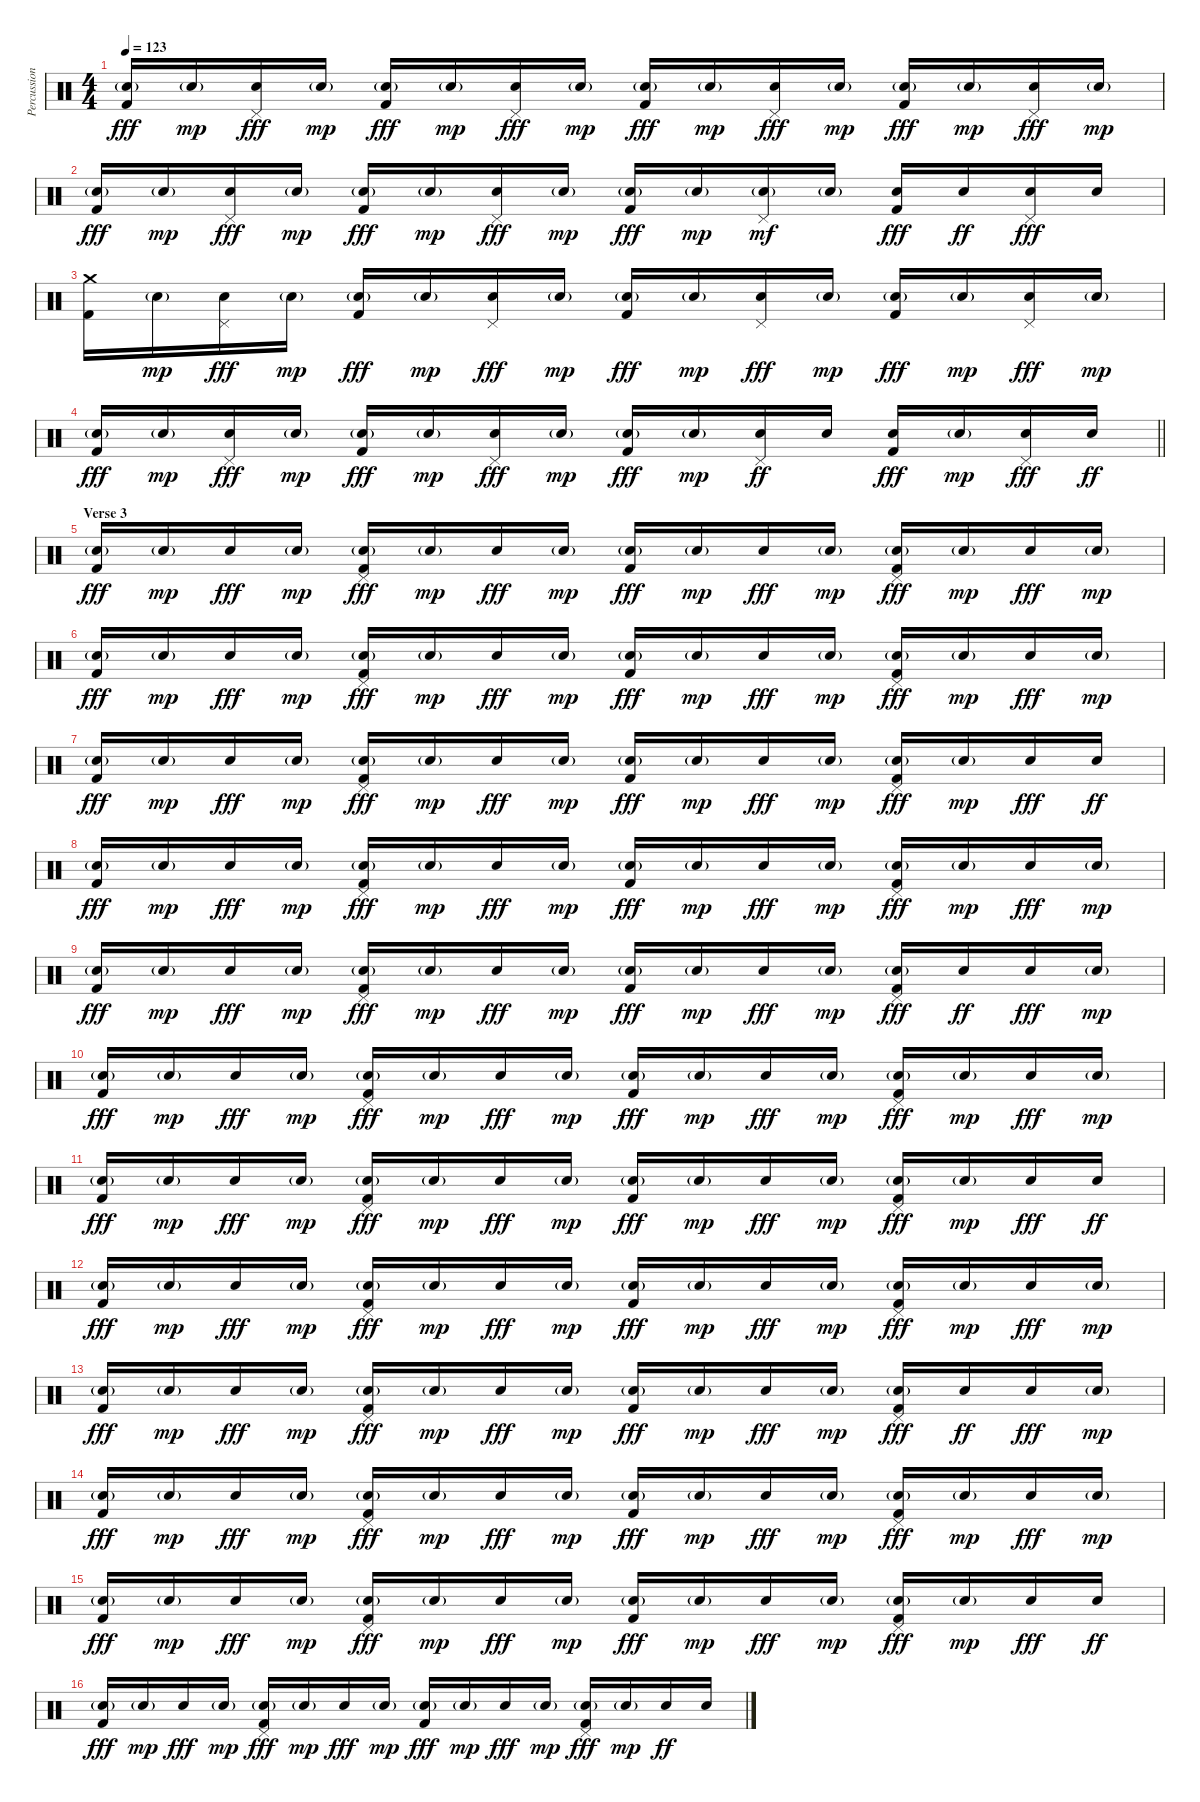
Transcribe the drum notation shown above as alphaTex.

\track ("Percussion" "Percussion") {instrument percussion}
\staff {score}
\articulation defaults
\ts (4 4)
\tempo 123
\clef neutral
\ks c
("Electric Snare (hit)"{g} "Kick (hit) 2").16{dy fff} "Electric Snare (hit)"{g}.16{dy mp} ("Pedal Hi-Hat (hit)" "Electric Snare (hit)").16{dy fff} "Electric Snare (hit)"{g}.16{dy mp} ("Electric Snare (hit)"{g} "Kick (hit) 2").16{dy fff} "Electric Snare (hit)"{g}.16{dy mp} ("Pedal Hi-Hat (hit)" "Electric Snare (hit)").16{dy fff} "Electric Snare (hit)"{g}.16{dy mp} ("Electric Snare (hit)"{g} "Kick (hit) 2").16{dy fff} "Electric Snare (hit)"{g}.16{dy mp} ("Pedal Hi-Hat (hit)" "Electric Snare (hit)").16{dy fff} "Electric Snare (hit)"{g}.16{dy mp} ("Electric Snare (hit)"{g} "Kick (hit) 2").16{dy fff} "Electric Snare (hit)"{g}.16{dy mp} ("Pedal Hi-Hat (hit)" "Electric Snare (hit)").16{dy fff} "Electric Snare (hit)"{g}.16{dy mp} |
("Electric Snare (hit)"{g} "Kick (hit) 2").16{dy fff} "Electric Snare (hit)"{g}.16{dy mp} ("Pedal Hi-Hat (hit)" "Electric Snare (hit)").16{dy fff} "Electric Snare (hit)"{g}.16{dy mp} ("Electric Snare (hit)"{g} "Kick (hit) 2").16{dy fff} "Electric Snare (hit)"{g}.16{dy mp} ("Pedal Hi-Hat (hit)" "Electric Snare (hit)").16{dy fff} "Electric Snare (hit)"{g}.16{dy mp} ("Electric Snare (hit)"{g} "Kick (hit) 2").16{dy fff} "Electric Snare (hit)"{g}.16{dy mp} ("Pedal Hi-Hat (hit)" "Electric Snare (hit)"{g}).16{dy mf} "Electric Snare (hit)"{g}.16 ("Electric Snare (hit)" "Kick (hit) 2").16{dy fff} "Electric Snare (hit)".16{dy ff} ("Pedal Hi-Hat (hit)" "Electric Snare (hit)").16{dy fff} "Electric Snare (hit)".16 |
("Crash medium (hit)" "Kick (hit) 2").16 "Electric Snare (hit)"{g}.16{dy mp} ("Pedal Hi-Hat (hit)" "Electric Snare (hit)").16{dy fff} "Electric Snare (hit)"{g}.16{dy mp} ("Electric Snare (hit)"{g} "Kick (hit) 2").16{dy fff} "Electric Snare (hit)"{g}.16{dy mp} ("Pedal Hi-Hat (hit)" "Electric Snare (hit)").16{dy fff} "Electric Snare (hit)"{g}.16{dy mp} ("Electric Snare (hit)"{g} "Kick (hit) 2").16{dy fff} "Electric Snare (hit)"{g}.16{dy mp} ("Pedal Hi-Hat (hit)" "Electric Snare (hit)").16{dy fff} "Electric Snare (hit)"{g}.16{dy mp} ("Electric Snare (hit)"{g} "Kick (hit) 2").16{dy fff} "Electric Snare (hit)"{g}.16{dy mp} ("Pedal Hi-Hat (hit)" "Electric Snare (hit)").16{dy fff} "Electric Snare (hit)"{g}.16{dy mp} |
\barLineRight lightlight
("Electric Snare (hit)"{g} "Kick (hit) 2").16{dy fff} "Electric Snare (hit)"{g}.16{dy mp} ("Pedal Hi-Hat (hit)" "Electric Snare (hit)").16{dy fff} "Electric Snare (hit)"{g}.16{dy mp} ("Electric Snare (hit)"{g} "Kick (hit) 2").16{dy fff} "Electric Snare (hit)"{g}.16{dy mp} ("Pedal Hi-Hat (hit)" "Electric Snare (hit)").16{dy fff} "Electric Snare (hit)"{g}.16{dy mp} ("Electric Snare (hit)"{g} "Kick (hit) 2").16{dy fff} "Electric Snare (hit)"{g}.16{dy mp} ("Pedal Hi-Hat (hit)" "Electric Snare (hit)").16{dy ff} "Electric Snare (hit)".16 ("Electric Snare (hit)" "Kick (hit) 2").16{dy fff} "Electric Snare (hit)"{g}.16{dy mp} ("Pedal Hi-Hat (hit)" "Electric Snare (hit)").16{dy fff} "Electric Snare (hit)".16{dy ff} |
\section ("" "Verse 3")
("Electric Snare (hit)"{g} "Kick (hit) 2").16{dy fff} "Electric Snare (hit)"{g}.16{dy mp} "Electric Snare (hit)".16{dy fff} "Electric Snare (hit)"{g}.16{dy mp} ("Pedal Hi-Hat (hit)" "Electric Snare (hit)"{g} "Kick (hit) 2").16{dy fff} "Electric Snare (hit)"{g}.16{dy mp} "Electric Snare (hit)".16{dy fff} "Electric Snare (hit)"{g}.16{dy mp} ("Electric Snare (hit)"{g} "Kick (hit) 2").16{dy fff} "Electric Snare (hit)"{g}.16{dy mp} "Electric Snare (hit)".16{dy fff} "Electric Snare (hit)"{g}.16{dy mp} ("Pedal Hi-Hat (hit)" "Electric Snare (hit)"{g} "Kick (hit) 2").16{dy fff} "Electric Snare (hit)"{g}.16{dy mp} "Electric Snare (hit)".16{dy fff} "Electric Snare (hit)"{g}.16{dy mp} |
("Electric Snare (hit)"{g} "Kick (hit) 2").16{dy fff} "Electric Snare (hit)"{g}.16{dy mp} "Electric Snare (hit)".16{dy fff} "Electric Snare (hit)"{g}.16{dy mp} ("Pedal Hi-Hat (hit)" "Electric Snare (hit)"{g} "Kick (hit) 2").16{dy fff} "Electric Snare (hit)"{g}.16{dy mp} "Electric Snare (hit)".16{dy fff} "Electric Snare (hit)"{g}.16{dy mp} ("Electric Snare (hit)"{g} "Kick (hit) 2").16{dy fff} "Electric Snare (hit)"{g}.16{dy mp} "Electric Snare (hit)".16{dy fff} "Electric Snare (hit)"{g}.16{dy mp} ("Pedal Hi-Hat (hit)" "Electric Snare (hit)"{g} "Kick (hit) 2").16{dy fff} "Electric Snare (hit)"{g}.16{dy mp} "Electric Snare (hit)".16{dy fff} "Electric Snare (hit)"{g}.16{dy mp} |
("Electric Snare (hit)"{g} "Kick (hit) 2").16{dy fff} "Electric Snare (hit)"{g}.16{dy mp} "Electric Snare (hit)".16{dy fff} "Electric Snare (hit)"{g}.16{dy mp} ("Pedal Hi-Hat (hit)" "Electric Snare (hit)"{g} "Kick (hit) 2").16{dy fff} "Electric Snare (hit)"{g}.16{dy mp} "Electric Snare (hit)".16{dy fff} "Electric Snare (hit)"{g}.16{dy mp} ("Electric Snare (hit)"{g} "Kick (hit) 2").16{dy fff} "Electric Snare (hit)"{g}.16{dy mp} "Electric Snare (hit)".16{dy fff} "Electric Snare (hit)"{g}.16{dy mp} ("Pedal Hi-Hat (hit)" "Electric Snare (hit)"{g} "Kick (hit) 2").16{dy fff} "Electric Snare (hit)"{g}.16{dy mp} "Electric Snare (hit)".16{dy fff} "Electric Snare (hit)".16{dy ff} |
("Electric Snare (hit)"{g} "Kick (hit) 2").16{dy fff} "Electric Snare (hit)"{g}.16{dy mp} "Electric Snare (hit)".16{dy fff} "Electric Snare (hit)"{g}.16{dy mp} ("Pedal Hi-Hat (hit)" "Electric Snare (hit)"{g} "Kick (hit) 2").16{dy fff} "Electric Snare (hit)"{g}.16{dy mp} "Electric Snare (hit)".16{dy fff} "Electric Snare (hit)"{g}.16{dy mp} ("Electric Snare (hit)"{g} "Kick (hit) 2").16{dy fff} "Electric Snare (hit)"{g}.16{dy mp} "Electric Snare (hit)".16{dy fff} "Electric Snare (hit)"{g}.16{dy mp} ("Pedal Hi-Hat (hit)" "Electric Snare (hit)"{g} "Kick (hit) 2").16{dy fff} "Electric Snare (hit)"{g}.16{dy mp} "Electric Snare (hit)".16{dy fff} "Electric Snare (hit)"{g}.16{dy mp} |
("Electric Snare (hit)"{g} "Kick (hit) 2").16{dy fff} "Electric Snare (hit)"{g}.16{dy mp} "Electric Snare (hit)".16{dy fff} "Electric Snare (hit)"{g}.16{dy mp} ("Pedal Hi-Hat (hit)" "Electric Snare (hit)"{g} "Kick (hit) 2").16{dy fff} "Electric Snare (hit)"{g}.16{dy mp} "Electric Snare (hit)".16{dy fff} "Electric Snare (hit)"{g}.16{dy mp} ("Electric Snare (hit)"{g} "Kick (hit) 2").16{dy fff} "Electric Snare (hit)"{g}.16{dy mp} "Electric Snare (hit)".16{dy fff} "Electric Snare (hit)"{g}.16{dy mp} ("Pedal Hi-Hat (hit)" "Electric Snare (hit)"{g} "Kick (hit) 2").16{dy fff} "Electric Snare (hit)".16{dy ff} "Electric Snare (hit)".16{dy fff} "Electric Snare (hit)"{g}.16{dy mp} |
("Electric Snare (hit)"{g} "Kick (hit) 2").16{dy fff} "Electric Snare (hit)"{g}.16{dy mp} "Electric Snare (hit)".16{dy fff} "Electric Snare (hit)"{g}.16{dy mp} ("Pedal Hi-Hat (hit)" "Electric Snare (hit)"{g} "Kick (hit) 2").16{dy fff} "Electric Snare (hit)"{g}.16{dy mp} "Electric Snare (hit)".16{dy fff} "Electric Snare (hit)"{g}.16{dy mp} ("Electric Snare (hit)"{g} "Kick (hit) 2").16{dy fff} "Electric Snare (hit)"{g}.16{dy mp} "Electric Snare (hit)".16{dy fff} "Electric Snare (hit)"{g}.16{dy mp} ("Pedal Hi-Hat (hit)" "Electric Snare (hit)"{g} "Kick (hit) 2").16{dy fff} "Electric Snare (hit)"{g}.16{dy mp} "Electric Snare (hit)".16{dy fff} "Electric Snare (hit)"{g}.16{dy mp} |
("Electric Snare (hit)"{g} "Kick (hit) 2").16{dy fff} "Electric Snare (hit)"{g}.16{dy mp} "Electric Snare (hit)".16{dy fff} "Electric Snare (hit)"{g}.16{dy mp} ("Pedal Hi-Hat (hit)" "Electric Snare (hit)"{g} "Kick (hit) 2").16{dy fff} "Electric Snare (hit)"{g}.16{dy mp} "Electric Snare (hit)".16{dy fff} "Electric Snare (hit)"{g}.16{dy mp} ("Electric Snare (hit)"{g} "Kick (hit) 2").16{dy fff} "Electric Snare (hit)"{g}.16{dy mp} "Electric Snare (hit)".16{dy fff} "Electric Snare (hit)"{g}.16{dy mp} ("Pedal Hi-Hat (hit)" "Electric Snare (hit)"{g} "Kick (hit) 2").16{dy fff} "Electric Snare (hit)"{g}.16{dy mp} "Electric Snare (hit)".16{dy fff} "Electric Snare (hit)".16{dy ff} |
("Electric Snare (hit)"{g} "Kick (hit) 2").16{dy fff} "Electric Snare (hit)"{g}.16{dy mp} "Electric Snare (hit)".16{dy fff} "Electric Snare (hit)"{g}.16{dy mp} ("Pedal Hi-Hat (hit)" "Electric Snare (hit)"{g} "Kick (hit) 2").16{dy fff} "Electric Snare (hit)"{g}.16{dy mp} "Electric Snare (hit)".16{dy fff} "Electric Snare (hit)"{g}.16{dy mp} ("Electric Snare (hit)"{g} "Kick (hit) 2").16{dy fff} "Electric Snare (hit)"{g}.16{dy mp} "Electric Snare (hit)".16{dy fff} "Electric Snare (hit)"{g}.16{dy mp} ("Pedal Hi-Hat (hit)" "Electric Snare (hit)"{g} "Kick (hit) 2").16{dy fff} "Electric Snare (hit)"{g}.16{dy mp} "Electric Snare (hit)".16{dy fff} "Electric Snare (hit)"{g}.16{dy mp} |
("Electric Snare (hit)"{g} "Kick (hit) 2").16{dy fff} "Electric Snare (hit)"{g}.16{dy mp} "Electric Snare (hit)".16{dy fff} "Electric Snare (hit)"{g}.16{dy mp} ("Pedal Hi-Hat (hit)" "Electric Snare (hit)"{g} "Kick (hit) 2").16{dy fff} "Electric Snare (hit)"{g}.16{dy mp} "Electric Snare (hit)".16{dy fff} "Electric Snare (hit)"{g}.16{dy mp} ("Electric Snare (hit)"{g} "Kick (hit) 2").16{dy fff} "Electric Snare (hit)"{g}.16{dy mp} "Electric Snare (hit)".16{dy fff} "Electric Snare (hit)"{g}.16{dy mp} ("Pedal Hi-Hat (hit)" "Electric Snare (hit)"{g} "Kick (hit) 2").16{dy fff} "Electric Snare (hit)".16{dy ff} "Electric Snare (hit)".16{dy fff} "Electric Snare (hit)"{g}.16{dy mp} |
("Electric Snare (hit)"{g} "Kick (hit) 2").16{dy fff} "Electric Snare (hit)"{g}.16{dy mp} "Electric Snare (hit)".16{dy fff} "Electric Snare (hit)"{g}.16{dy mp} ("Pedal Hi-Hat (hit)" "Electric Snare (hit)"{g} "Kick (hit) 2").16{dy fff} "Electric Snare (hit)"{g}.16{dy mp} "Electric Snare (hit)".16{dy fff} "Electric Snare (hit)"{g}.16{dy mp} ("Electric Snare (hit)"{g} "Kick (hit) 2").16{dy fff} "Electric Snare (hit)"{g}.16{dy mp} "Electric Snare (hit)".16{dy fff} "Electric Snare (hit)"{g}.16{dy mp} ("Pedal Hi-Hat (hit)" "Electric Snare (hit)"{g} "Kick (hit) 2").16{dy fff} "Electric Snare (hit)"{g}.16{dy mp} "Electric Snare (hit)".16{dy fff} "Electric Snare (hit)"{g}.16{dy mp} |
("Electric Snare (hit)"{g} "Kick (hit) 2").16{dy fff} "Electric Snare (hit)"{g}.16{dy mp} "Electric Snare (hit)".16{dy fff} "Electric Snare (hit)"{g}.16{dy mp} ("Pedal Hi-Hat (hit)" "Electric Snare (hit)"{g} "Kick (hit) 2").16{dy fff} "Electric Snare (hit)"{g}.16{dy mp} "Electric Snare (hit)".16{dy fff} "Electric Snare (hit)"{g}.16{dy mp} ("Electric Snare (hit)"{g} "Kick (hit) 2").16{dy fff} "Electric Snare (hit)"{g}.16{dy mp} "Electric Snare (hit)".16{dy fff} "Electric Snare (hit)"{g}.16{dy mp} ("Pedal Hi-Hat (hit)" "Electric Snare (hit)"{g} "Kick (hit) 2").16{dy fff} "Electric Snare (hit)"{g}.16{dy mp} "Electric Snare (hit)".16{dy fff} "Electric Snare (hit)".16{dy ff} |
("Electric Snare (hit)"{g} "Kick (hit) 2").16{dy fff} "Electric Snare (hit)"{g}.16{dy mp} "Electric Snare (hit)".16{dy fff} "Electric Snare (hit)"{g}.16{dy mp} ("Pedal Hi-Hat (hit)" "Electric Snare (hit)"{g} "Kick (hit) 2").16{dy fff} "Electric Snare (hit)"{g}.16{dy mp} "Electric Snare (hit)".16{dy fff} "Electric Snare (hit)"{g}.16{dy mp} ("Electric Snare (hit)"{g} "Kick (hit) 2").16{dy fff} "Electric Snare (hit)"{g}.16{dy mp} "Electric Snare (hit)".16{dy fff} "Electric Snare (hit)"{g}.16{dy mp} ("Pedal Hi-Hat (hit)" "Electric Snare (hit)"{g} "Kick (hit) 2").16{dy fff} "Electric Snare (hit)"{g}.16{dy mp} "Electric Snare (hit)".16{dy ff} "Electric Snare (hit)".16
